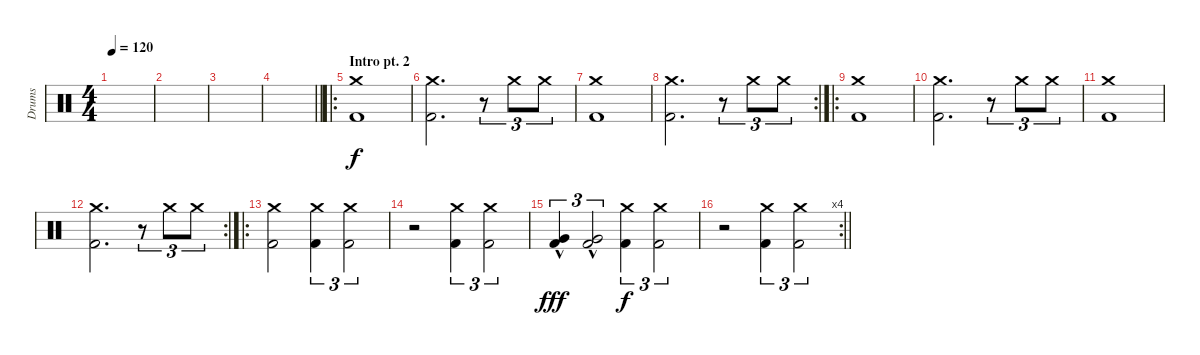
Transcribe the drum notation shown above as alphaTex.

\track ("Drums" "Drums") {instrument percussion}
\staff {score}
\articulation defaults
\ts (4 4)
\tempo 120
\clef neutral
\ks c
|
|
|
\barLineRight lightlight
|
\ro
\section ("" "Intro pt. 2")
("Crash medium (hit)" "Kick (hit) 2").1 |
("Crash medium (hit)" "Kick (hit) 2").2{d} r.8{tu (3 2)} "Crash medium (hit)".8{tu (3 2)} "Crash medium (hit)".8{tu (3 2)} |
("Crash medium (hit)" "Kick (hit) 2").1 |
\rc 2
("Crash medium (hit)" "Kick (hit) 2").2{d} r.8{tu (3 2)} "Crash medium (hit)".8{tu (3 2)} "Crash medium (hit)".8{tu (3 2)} |
\ro
("Crash medium (hit)" "Kick (hit) 2").1 |
("Crash medium (hit)" "Kick (hit) 2").2{d} r.8{tu (3 2)} "Crash medium (hit)".8{tu (3 2)} "Crash medium (hit)".8{tu (3 2)} |
("Crash medium (hit)" "Kick (hit) 2").1 |
\rc 2
("Crash medium (hit)" "Kick (hit) 2").2{d} r.8{tu (3 2)} "Crash medium (hit)".8{tu (3 2)} "Crash medium (hit)".8{tu (3 2)} |
\ro
("Crash medium (hit)" "Kick (hit) 2").2 ("Crash medium (hit)" "Kick (hit) 2").4{tu (3 2)} ("Crash medium (hit)" "Kick (hit) 2").2{tu (3 2)} |
r.2 ("Crash medium (hit)" "Kick (hit) 2").4{tu (3 2)} ("Crash medium (hit)" "Kick (hit) 2").2{tu (3 2)} |
("Very Low Tom (hit)"{hac} "Kick (hit) 2").4{tu (3 2) dy fff} ("Very Low Tom (hit)"{hac} "Kick (hit) 2").2{tu (3 2)} ("Crash medium (hit)" "Kick (hit) 2").4{tu (3 2) dy f} ("Crash medium (hit)" "Kick (hit) 2").2{tu (3 2)} |
\rc 4
\barLineRight lightlight
r.2 ("Crash medium (hit)" "Kick (hit) 2").4{tu (3 2)} ("Crash medium (hit)" "Kick (hit) 2").2{tu (3 2)}
